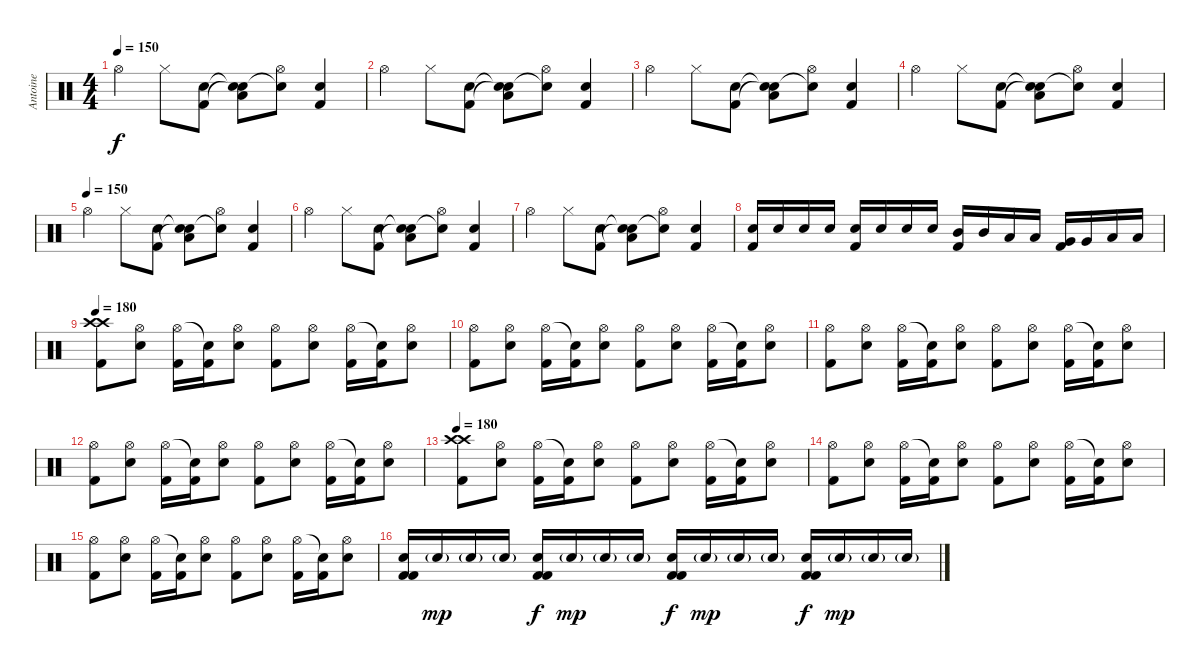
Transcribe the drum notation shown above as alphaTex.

\track ("Antoine" "Antoine") {instrument percussion}
\staff {score}
\articulation defaults
\ts (4 4)
\tempo 150
\clef neutral
\ks c "Hi-Hat (open)".4{dy f} "Hi-Hat (closed)".8
("Kick (hit) 2" "Electric Snare (hit)").8 ("Snare (hit)"{t} "Snare (hit)"{t} "Low Tom (hit)").8 ("Snare (hit)"{t} "Hi-Hat (open)").8 ("Kick (hit) 2" "Electric Snare (hit)").4 |
"Hi-Hat (open)".4 "Hi-Hat (closed)".8 ("Kick (hit) 2" "Electric Snare (hit)").8 ("Snare (hit)"{t} "Snare (hit)"{t} "Low Tom (hit)").8 ("Snare (hit)"{t} "Hi-Hat (open)").8 ("Kick (hit) 2" "Electric Snare (hit)").4 |
"Hi-Hat (open)".4 "Hi-Hat (closed)".8 ("Kick (hit) 2" "Electric Snare (hit)").8 ("Snare (hit)"{t} "Snare (hit)"{t} "Low Tom (hit)").8 ("Snare (hit)"{t} "Hi-Hat (open)").8 ("Kick (hit) 2" "Electric Snare (hit)").4 |
"Hi-Hat (open)".4 "Hi-Hat (closed)".8 ("Kick (hit) 2" "Electric Snare (hit)").8 ("Snare (hit)"{t} "Snare (hit)"{t} "Low Tom (hit)").8 ("Snare (hit)"{t} "Hi-Hat (open)").8 ("Kick (hit) 2" "Electric Snare (hit)").4 |
\tempo (150)
"Hi-Hat (open)".4 "Hi-Hat (closed)".8 ("Kick (hit) 2" "Electric Snare (hit)").8 ("Snare (hit)"{t} "Snare (hit)"{t} "Low Tom (hit)").8 ("Snare (hit)"{t} "Hi-Hat (open)").8 ("Kick (hit) 2" "Electric Snare (hit)").4 |
"Hi-Hat (open)".4 "Hi-Hat (closed)".8 ("Kick (hit) 2" "Electric Snare (hit)").8 ("Snare (hit)"{t} "Snare (hit)"{t} "Low Tom (hit)").8 ("Snare (hit)"{t} "Hi-Hat (open)").8 ("Kick (hit) 2" "Electric Snare (hit)").4 |
"Hi-Hat (open)".4 "Hi-Hat (closed)".8 ("Kick (hit) 2" "Electric Snare (hit)").8 ("Snare (hit)"{t} "Snare (hit)"{t} "Low Tom (hit)").8 ("Snare (hit)"{t} "Hi-Hat (open)").8 ("Kick (hit) 2" "Electric Snare (hit)").4 |
("Electric Snare (hit)" "Kick (hit) 2").16 "Electric Snare (hit)".16 "Electric Snare (hit)".16 "Electric Snare (hit)".16 ("Electric Snare (hit)" "Kick (hit) 2").16 "Electric Snare (hit)".16 "Electric Snare (hit)".16 "Electric Snare (hit)".16 ("Mid Tom (hit)" "Kick (hit) 2").16 "Mid Tom (hit)".16 "Low Tom (hit)".16 "Low Tom (hit)".16 ("Very Low Tom (hit)" "Kick (hit) 2").16 "Very Low Tom (hit)".16 "Low Floor Tom (hit)".16 "Low Floor Tom (hit)".16 |
\tempo 180
("Crash high (hit)" "Crash high (hit)" "Kick (hit) 2").8 ("Hi-Hat (open)" "Snare (hit) 2").8 ("Hi-Hat (open)" "Kick (hit) 2").16 ("Snare (hit)"{t} "Kick (hit) 2").16 ("Hi-Hat (open)" "Snare (hit) 2").8 ("Hi-Hat (open)" "Kick (hit) 2").8 ("Hi-Hat (open)" "Snare (hit) 2").8 ("Hi-Hat (open)" "Kick (hit) 2").16 ("Snare (hit)"{t} "Kick (hit) 2").16 ("Hi-Hat (open)" "Snare (hit) 2").8 |
("Hi-Hat (open)" "Kick (hit) 2").8 ("Hi-Hat (open)" "Snare (hit) 2").8 ("Hi-Hat (open)" "Kick (hit) 2").16 ("Snare (hit)"{t} "Kick (hit) 2").16 ("Hi-Hat (open)" "Snare (hit) 2").8 ("Hi-Hat (open)" "Kick (hit) 2").8 ("Hi-Hat (open)" "Snare (hit) 2").8 ("Hi-Hat (open)" "Kick (hit) 2").16 ("Snare (hit)"{t} "Kick (hit) 2").16 ("Hi-Hat (open)" "Snare (hit) 2").8 |
("Hi-Hat (open)" "Kick (hit) 2").8 ("Hi-Hat (open)" "Snare (hit) 2").8 ("Hi-Hat (open)" "Kick (hit) 2").16 ("Snare (hit)"{t} "Kick (hit) 2").16 ("Hi-Hat (open)" "Snare (hit) 2").8 ("Hi-Hat (open)" "Kick (hit) 2").8 ("Hi-Hat (open)" "Snare (hit) 2").8 ("Hi-Hat (open)" "Kick (hit) 2").16 ("Snare (hit)"{t} "Kick (hit) 2").16 ("Hi-Hat (open)" "Snare (hit) 2").8 |
("Hi-Hat (open)" "Kick (hit) 2").8 ("Hi-Hat (open)" "Snare (hit) 2").8 ("Hi-Hat (open)" "Kick (hit) 2").16 ("Snare (hit)"{t} "Kick (hit) 2").16 ("Hi-Hat (open)" "Snare (hit) 2").8 ("Hi-Hat (open)" "Kick (hit) 2").8 ("Hi-Hat (open)" "Snare (hit) 2").8 ("Hi-Hat (open)" "Kick (hit) 2").16 ("Snare (hit)"{t} "Kick (hit) 2").16 ("Hi-Hat (open)" "Snare (hit) 2").8 |
\tempo 180
("Crash high (hit)" "Crash high (hit)" "Kick (hit) 2").8 ("Hi-Hat (open)" "Snare (hit) 2").8 ("Hi-Hat (open)" "Kick (hit) 2").16 ("Snare (hit)"{t} "Kick (hit) 2").16 ("Hi-Hat (open)" "Snare (hit) 2").8 ("Hi-Hat (open)" "Kick (hit) 2").8 ("Hi-Hat (open)" "Snare (hit) 2").8 ("Hi-Hat (open)" "Kick (hit) 2").16 ("Snare (hit)"{t} "Kick (hit) 2").16 ("Hi-Hat (open)" "Snare (hit) 2").8 |
("Hi-Hat (open)" "Kick (hit) 2").8 ("Hi-Hat (open)" "Snare (hit) 2").8 ("Hi-Hat (open)" "Kick (hit) 2").16 ("Snare (hit)"{t} "Kick (hit) 2").16 ("Hi-Hat (open)" "Snare (hit) 2").8 ("Hi-Hat (open)" "Kick (hit) 2").8 ("Hi-Hat (open)" "Snare (hit) 2").8 ("Hi-Hat (open)" "Kick (hit) 2").16 ("Snare (hit)"{t} "Kick (hit) 2").16 ("Hi-Hat (open)" "Snare (hit) 2").8 |
("Hi-Hat (open)" "Kick (hit) 2").8 ("Hi-Hat (open)" "Snare (hit) 2").8 ("Hi-Hat (open)" "Kick (hit) 2").16 ("Snare (hit)"{t} "Kick (hit) 2").16 ("Hi-Hat (open)" "Snare (hit) 2").8 ("Hi-Hat (open)" "Kick (hit) 2").8 ("Hi-Hat (open)" "Snare (hit) 2").8 ("Hi-Hat (open)" "Kick (hit) 2").16 ("Snare (hit)"{t} "Kick (hit) 2").16 ("Hi-Hat (open)" "Snare (hit) 2").8 |
("Electric Snare (hit)" "Kick (hit) 2" "Kick (hit) 2").16 "Electric Snare (hit)"{g}.16{dy mp} "Electric Snare (hit)"{g}.16 "Electric Snare (hit)"{g}.16 ("Electric Snare (hit)" "Kick (hit) 2" "Kick (hit) 2").16{dy f} "Electric Snare (hit)"{g}.16{dy mp} "Electric Snare (hit)"{g}.16 "Electric Snare (hit)"{g}.16 ("Electric Snare (hit)" "Kick (hit) 2" "Kick (hit) 2").16{dy f} "Electric Snare (hit)"{g}.16{dy mp} "Electric Snare (hit)"{g}.16 "Electric Snare (hit)"{g}.16 ("Electric Snare (hit)" "Kick (hit) 2" "Kick (hit) 2").16{dy f} "Electric Snare (hit)"{g}.16{dy mp} "Electric Snare (hit)"{g}.16 "Electric Snare (hit)"{g}.16
